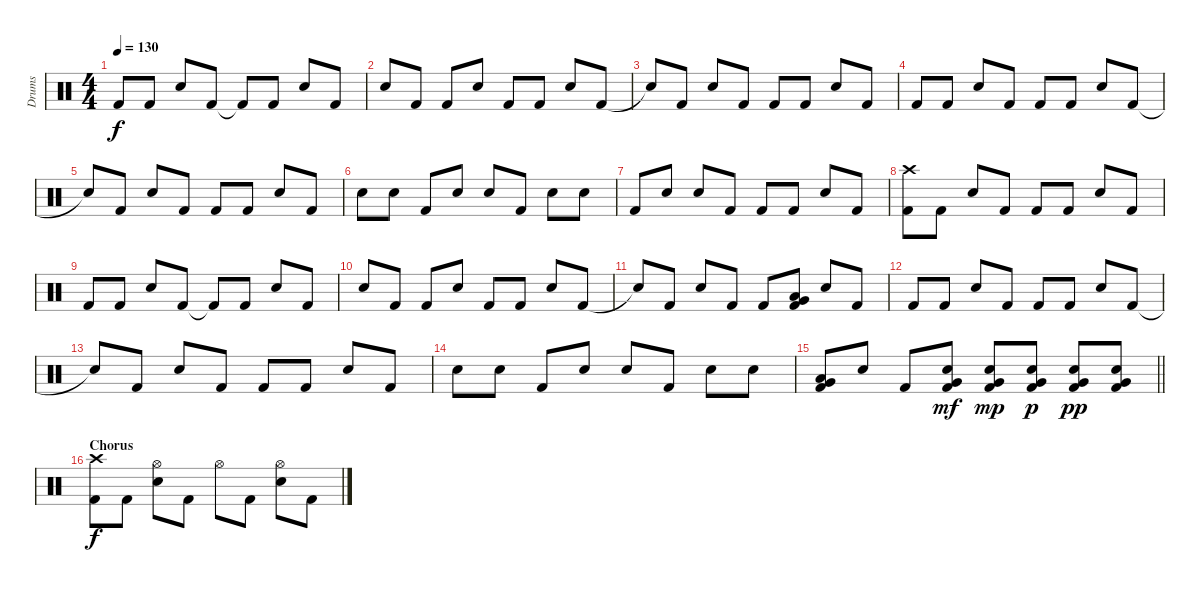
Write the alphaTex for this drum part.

\track ("Drums" "Drums") {instrument percussion}
\staff {score}
\articulation defaults
\ts (4 4)
\tempo 130
\clef neutral
\ks c "Kick (hit) 2".8{dy f} "Kick (hit) 2".8 "Electric Snare (hit)".8 "Kick (hit) 2".8 "Kick (hit) 2"{t}.8 "Kick (hit) 2".8 "Electric Snare (hit)".8 "Kick (hit) 2".8
|
"Electric Snare (hit)".8 "Kick (hit) 2".8 "Kick (hit) 2".8 "Electric Snare (hit)".8 "Kick (hit) 2".8 "Kick (hit) 2".8 "Electric Snare (hit)".8 "Kick (hit) 2".8 |
"Snare (hit)"{t}.8 "Kick (hit) 2".8 "Electric Snare (hit)".8 "Kick (hit) 2".8 "Kick (hit) 2".8 "Kick (hit) 2".8 "Electric Snare (hit)".8 "Kick (hit) 2".8 |
"Kick (hit) 2".8 "Kick (hit) 2".8 "Electric Snare (hit)".8 "Kick (hit) 2".8 "Kick (hit) 2".8 "Kick (hit) 2".8 "Electric Snare (hit)".8 "Kick (hit) 2".8 |
"Snare (hit)"{t}.8 "Kick (hit) 2".8 "Electric Snare (hit)".8 "Kick (hit) 2".8 "Kick (hit) 2".8 "Kick (hit) 2".8 "Electric Snare (hit)".8 "Kick (hit) 2".8 |
"Electric Snare (hit)".8 "Electric Snare (hit)".8 "Kick (hit) 2".8 "Electric Snare (hit)".8 "Electric Snare (hit)".8 "Kick (hit) 2".8 "Electric Snare (hit)".8 "Electric Snare (hit)".8 |
"Kick (hit) 2".8 "Electric Snare (hit)".8 "Electric Snare (hit)".8 "Kick (hit) 2".8 "Kick (hit) 2".8 "Kick (hit) 2".8 "Electric Snare (hit)".8 "Kick (hit) 2".8 |
("Crash high (hit)" "Kick (hit) 2").8 "Kick (hit) 2".8 "Electric Snare (hit)".8 "Kick (hit) 2".8 "Kick (hit) 2".8 "Kick (hit) 2".8 "Electric Snare (hit)".8 "Kick (hit) 2".8 |
"Kick (hit) 2".8 "Kick (hit) 2".8 "Electric Snare (hit)".8 "Kick (hit) 2".8 "Kick (hit) 2"{t}.8 "Kick (hit) 2".8 "Electric Snare (hit)".8 "Kick (hit) 2".8 |
"Electric Snare (hit)".8 "Kick (hit) 2".8 "Kick (hit) 2".8 "Electric Snare (hit)".8 "Kick (hit) 2".8 "Kick (hit) 2".8 "Electric Snare (hit)".8 "Kick (hit) 2".8 |
"Snare (hit)"{t}.8 "Kick (hit) 2".8 "Electric Snare (hit)".8 "Kick (hit) 2".8 "Kick (hit) 2".8 ("Low Floor Tom (hit)" "Very Low Tom (hit)" "Kick (hit) 2").8 "Electric Snare (hit)".8 "Kick (hit) 2".8 |
"Kick (hit) 2".8 "Kick (hit) 2".8 "Electric Snare (hit)".8 "Kick (hit) 2".8 "Kick (hit) 2".8 "Kick (hit) 2".8 "Electric Snare (hit)".8 "Kick (hit) 2".8 |
"Snare (hit)"{t}.8 "Kick (hit) 2".8 "Electric Snare (hit)".8 "Kick (hit) 2".8 "Kick (hit) 2".8 "Kick (hit) 2".8 "Electric Snare (hit)".8 "Kick (hit) 2".8 |
"Electric Snare (hit)".8 "Electric Snare (hit)".8 "Kick (hit) 2".8 "Electric Snare (hit)".8 "Electric Snare (hit)".8 "Kick (hit) 2".8 "Electric Snare (hit)".8 "Electric Snare (hit)".8 |
\barLineRight lightlight
("Low Floor Tom (hit)" "Very Low Tom (hit)" "Kick (hit) 2").8 "Electric Snare (hit)".8 "Kick (hit) 2".8 ("Very Low Tom (hit)" "Electric Snare (hit)" "Kick (hit) 2").8{dy mf} ("Very Low Tom (hit)" "Electric Snare (hit)" "Kick (hit) 2").8{dy mp} ("Very Low Tom (hit)" "Electric Snare (hit)" "Kick (hit) 2").8{dy p} ("Very Low Tom (hit)" "Electric Snare (hit)" "Kick (hit) 2").8{dy pp} ("Very Low Tom (hit)" "Electric Snare (hit)" "Kick (hit) 2").8 |
\section ("" "Chorus")
("Crash high (hit)" "Kick (hit) 2").8{dy f} "Kick (hit) 2".8 ("Hi-Hat (open)" "Electric Snare (hit)").8 "Kick (hit) 2".8 "Hi-Hat (open)".8 "Kick (hit) 2".8 ("Hi-Hat (open)" "Electric Snare (hit)").8 "Kick (hit) 2".8
